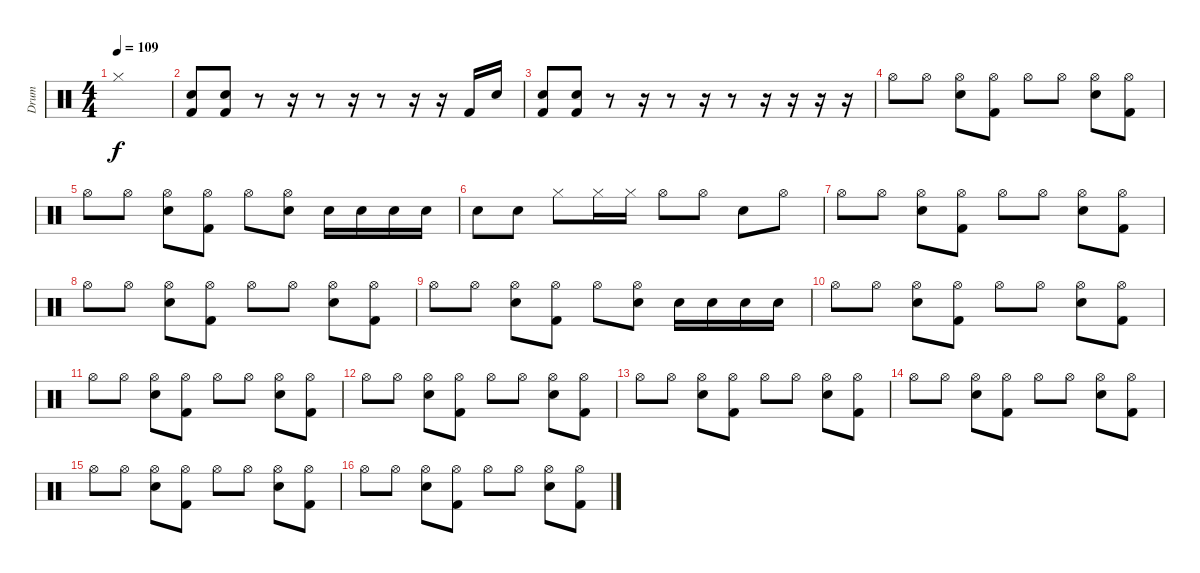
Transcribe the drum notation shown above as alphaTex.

\track ("Drum" "Drum") {instrument percussion}
\staff {score}
\articulation defaults
\ts (4 4)
\tempo 109
\clef neutral
\ks c "Hi-Hat (closed)".1{dy f}
|
("Kick (hit) 2" "Electric Snare (hit)").8 ("Kick (hit) 2" "Electric Snare (hit)").8 r.8 r.16 r.8 r.16 r.8 r.16 r.16 "Kick (hit) 2".16 "Electric Snare (hit)".16 |
("Kick (hit) 2" "Electric Snare (hit)").8 ("Kick (hit) 2" "Electric Snare (hit)").8 r.8 r.16 r.8 r.16 r.8 r.16 r.16 r.16 r.16 |
"Hi-Hat (open)".8 "Hi-Hat (open)".8 ("Electric Snare (hit)" "Hi-Hat (open)").8 ("Kick (hit) 2" "Hi-Hat (open)").8 "Hi-Hat (open)".8 "Hi-Hat (open)".8 ("Electric Snare (hit)" "Hi-Hat (open)").8 ("Kick (hit) 2" "Hi-Hat (open)").8 |
"Hi-Hat (open)".8 "Hi-Hat (open)".8 ("Electric Snare (hit)" "Hi-Hat (open)").8 ("Kick (hit) 2" "Hi-Hat (open)").8 "Hi-Hat (open)".8 ("Electric Snare (hit)" "Hi-Hat (open)").8 "Electric Snare (hit)".16 "Electric Snare (hit)".16 "Electric Snare (hit)".16 "Electric Snare (hit)".16 |
"Electric Snare (hit)".8 "Electric Snare (hit)".8 "Hi-Hat (closed)".8 "Hi-Hat (closed)".16 "Hi-Hat (closed)".16 "Hi-Hat (open)".8 "Hi-Hat (open)".8 "Electric Snare (hit)".8 "Hi-Hat (open)".8 |
"Hi-Hat (open)".8 "Hi-Hat (open)".8 ("Electric Snare (hit)" "Hi-Hat (open)").8 ("Kick (hit) 2" "Hi-Hat (open)").8 "Hi-Hat (open)".8 "Hi-Hat (open)".8 ("Electric Snare (hit)" "Hi-Hat (open)").8 ("Kick (hit) 2" "Hi-Hat (open)").8 |
"Hi-Hat (open)".8 "Hi-Hat (open)".8 ("Electric Snare (hit)" "Hi-Hat (open)").8 ("Kick (hit) 2" "Hi-Hat (open)").8 "Hi-Hat (open)".8 "Hi-Hat (open)".8 ("Electric Snare (hit)" "Hi-Hat (open)").8 ("Kick (hit) 2" "Hi-Hat (open)").8 |
"Hi-Hat (open)".8 "Hi-Hat (open)".8 ("Electric Snare (hit)" "Hi-Hat (open)").8 ("Kick (hit) 2" "Hi-Hat (open)").8 "Hi-Hat (open)".8 ("Electric Snare (hit)" "Hi-Hat (open)").8 "Electric Snare (hit)".16 "Electric Snare (hit)".16 "Electric Snare (hit)".16 "Electric Snare (hit)".16 |
"Hi-Hat (open)".8 "Hi-Hat (open)".8 ("Electric Snare (hit)" "Hi-Hat (open)").8 ("Kick (hit) 2" "Hi-Hat (open)").8 "Hi-Hat (open)".8 "Hi-Hat (open)".8 ("Electric Snare (hit)" "Hi-Hat (open)").8 ("Kick (hit) 2" "Hi-Hat (open)").8 |
"Hi-Hat (open)".8 "Hi-Hat (open)".8 ("Electric Snare (hit)" "Hi-Hat (open)").8 ("Kick (hit) 2" "Hi-Hat (open)").8 "Hi-Hat (open)".8 "Hi-Hat (open)".8 ("Electric Snare (hit)" "Hi-Hat (open)").8 ("Kick (hit) 2" "Hi-Hat (open)").8 |
"Hi-Hat (open)".8 "Hi-Hat (open)".8 ("Electric Snare (hit)" "Hi-Hat (open)").8 ("Kick (hit) 2" "Hi-Hat (open)").8 "Hi-Hat (open)".8 "Hi-Hat (open)".8 ("Electric Snare (hit)" "Hi-Hat (open)").8 ("Kick (hit) 2" "Hi-Hat (open)").8 |
"Hi-Hat (open)".8 "Hi-Hat (open)".8 ("Electric Snare (hit)" "Hi-Hat (open)").8 ("Kick (hit) 2" "Hi-Hat (open)").8 "Hi-Hat (open)".8 "Hi-Hat (open)".8 ("Electric Snare (hit)" "Hi-Hat (open)").8 ("Kick (hit) 2" "Hi-Hat (open)").8 |
"Hi-Hat (open)".8 "Hi-Hat (open)".8 ("Electric Snare (hit)" "Hi-Hat (open)").8 ("Kick (hit) 2" "Hi-Hat (open)").8 "Hi-Hat (open)".8 "Hi-Hat (open)".8 ("Electric Snare (hit)" "Hi-Hat (open)").8 ("Kick (hit) 2" "Hi-Hat (open)").8 |
"Hi-Hat (open)".8 "Hi-Hat (open)".8 ("Electric Snare (hit)" "Hi-Hat (open)").8 ("Kick (hit) 2" "Hi-Hat (open)").8 "Hi-Hat (open)".8 "Hi-Hat (open)".8 ("Electric Snare (hit)" "Hi-Hat (open)").8 ("Kick (hit) 2" "Hi-Hat (open)").8 |
"Hi-Hat (open)".8 "Hi-Hat (open)".8 ("Electric Snare (hit)" "Hi-Hat (open)").8 ("Kick (hit) 2" "Hi-Hat (open)").8 "Hi-Hat (open)".8 "Hi-Hat (open)".8 ("Electric Snare (hit)" "Hi-Hat (open)").8 ("Kick (hit) 2" "Hi-Hat (open)").8
